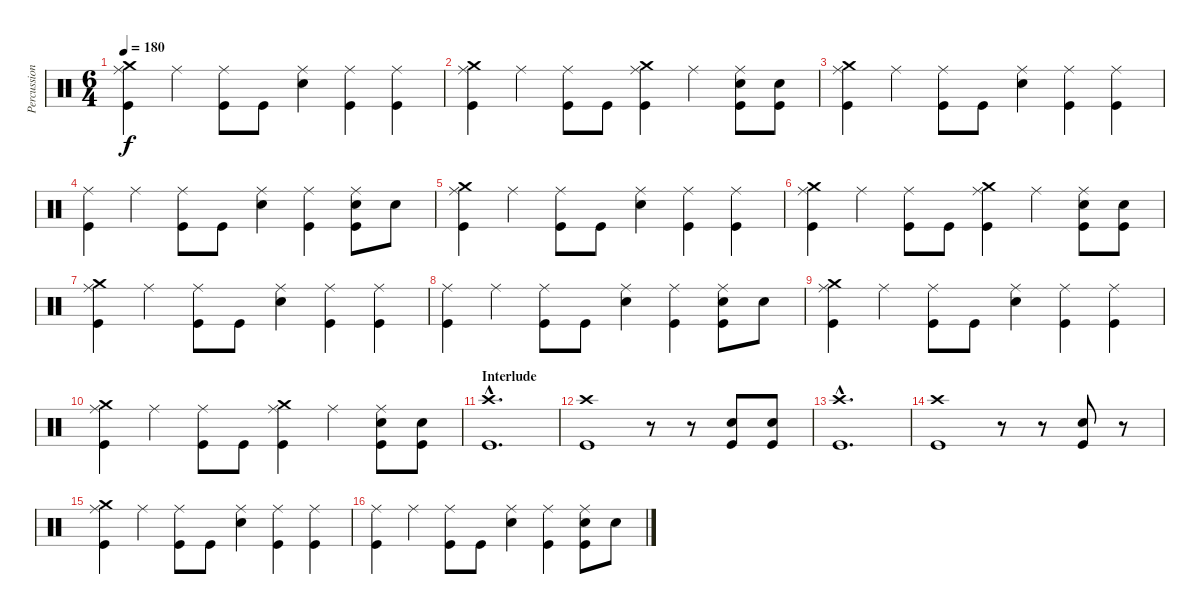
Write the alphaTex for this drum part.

\track ("Percussion" "Percussion") {instrument percussion}
\staff {score}
\articulation defaults
\ts (6 4)
\tempo 180
\clef neutral
\ks c
("Ride (middle)" "Crash medium (hit)" "Kick (hit)").4{dy f} "Ride (middle)".4 ("Ride (middle)" "Kick (hit)").8 "Kick (hit)".8 ("Ride (middle)" "Electric Snare (hit)").4 ("Ride (middle)" "Kick (hit)").4 ("Ride (middle)" "Kick (hit)").4 |
("Ride (middle)" "Crash medium (hit)" "Kick (hit)").4 "Ride (middle)".4 ("Ride (middle)" "Kick (hit)").8 "Kick (hit)".8 ("Ride (middle)" "Crash medium (hit)" "Kick (hit)").4 "Ride (middle)".4 ("Ride (middle)" "Electric Snare (hit)" "Kick (hit)").8 ("Electric Snare (hit)" "Kick (hit)").8 |
("Ride (middle)" "Crash medium (hit)" "Kick (hit)").4 "Ride (middle)".4 ("Ride (middle)" "Kick (hit)").8 "Kick (hit)".8 ("Ride (middle)" "Electric Snare (hit)").4 ("Ride (middle)" "Kick (hit)").4 ("Ride (middle)" "Kick (hit)").4 |
("Ride (middle)" "Kick (hit)").4 "Ride (middle)".4 ("Ride (middle)" "Kick (hit)").8 "Kick (hit)".8 ("Ride (middle)" "Electric Snare (hit)").4 ("Ride (middle)" "Kick (hit)").4 ("Ride (middle)" "Electric Snare (hit)" "Kick (hit)").8 "Electric Snare (hit)".8 |
("Ride (middle)" "Crash medium (hit)" "Kick (hit)").4 "Ride (middle)".4 ("Ride (middle)" "Kick (hit)").8 "Kick (hit)".8 ("Ride (middle)" "Electric Snare (hit)").4 ("Ride (middle)" "Kick (hit)").4 ("Ride (middle)" "Kick (hit)").4 |
("Ride (middle)" "Crash medium (hit)" "Kick (hit)").4 "Ride (middle)".4 ("Ride (middle)" "Kick (hit)").8 "Kick (hit)".8 ("Ride (middle)" "Crash medium (hit)" "Kick (hit)").4 "Ride (middle)".4 ("Ride (middle)" "Electric Snare (hit)" "Kick (hit)").8 ("Electric Snare (hit)" "Kick (hit)").8 |
("Ride (middle)" "Crash medium (hit)" "Kick (hit)").4 "Ride (middle)".4 ("Ride (middle)" "Kick (hit)").8 "Kick (hit)".8 ("Ride (middle)" "Electric Snare (hit)").4 ("Ride (middle)" "Kick (hit)").4 ("Ride (middle)" "Kick (hit)").4 |
("Ride (middle)" "Kick (hit)").4 "Ride (middle)".4 ("Ride (middle)" "Kick (hit)").8 "Kick (hit)".8 ("Ride (middle)" "Electric Snare (hit)").4 ("Ride (middle)" "Kick (hit)").4 ("Ride (middle)" "Electric Snare (hit)" "Kick (hit)").8 "Electric Snare (hit)".8 |
("Ride (middle)" "Crash medium (hit)" "Kick (hit)").4 "Ride (middle)".4 ("Ride (middle)" "Kick (hit)").8 "Kick (hit)".8 ("Ride (middle)" "Electric Snare (hit)").4 ("Ride (middle)" "Kick (hit)").4 ("Ride (middle)" "Kick (hit)").4 |
("Ride (middle)" "Crash medium (hit)" "Kick (hit)").4 "Ride (middle)".4 ("Ride (middle)" "Kick (hit)").8 "Kick (hit)".8 ("Ride (middle)" "Crash medium (hit)" "Kick (hit)").4 "Ride (middle)".4 ("Ride (middle)" "Electric Snare (hit)" "Kick (hit)").8 ("Electric Snare (hit)" "Kick (hit)").8 |
\section ("" "Interlude")
("Crash high (hit)"{hac} "Kick (hit)"{hac}).1{d} |
("Crash high (hit)" "Kick (hit)").1 r.8 r.8 ("Electric Snare (hit)" "Kick (hit)").8 ("Electric Snare (hit)" "Kick (hit)").8 |
("Crash high (hit)"{hac} "Kick (hit)"{hac}).1{d} |
("Crash high (hit)" "Kick (hit)").1 r.8 r.8 ("Electric Snare (hit)" "Kick (hit)").8 r.8 |
("Ride (middle)" "Crash medium (hit)" "Kick (hit)").4 "Ride (middle)".4 ("Ride (middle)" "Kick (hit)").8 "Kick (hit)".8 ("Ride (middle)" "Electric Snare (hit)").4 ("Ride (middle)" "Kick (hit)").4 ("Ride (middle)" "Kick (hit)").4 |
("Ride (middle)" "Kick (hit)").4 "Ride (middle)".4 ("Ride (middle)" "Kick (hit)").8 "Kick (hit)".8 ("Ride (middle)" "Electric Snare (hit)").4 ("Ride (middle)" "Kick (hit)").4 ("Ride (middle)" "Electric Snare (hit)" "Kick (hit)").8 "Electric Snare (hit)".8
